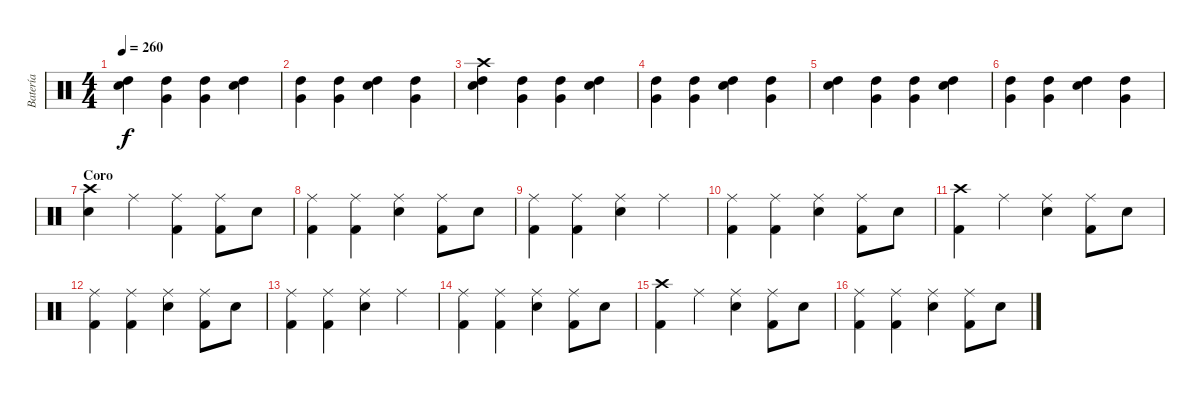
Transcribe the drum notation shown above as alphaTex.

\track ("Batería" "Batería") {instrument percussion}
\staff {score}
\articulation defaults
\ts (4 4)
\tempo 260
\clef neutral
\ks c
("Snare (hit) 2" "High Tom (hit)").4{dy f} ("Very Low Tom (hit)" "High Tom (hit)").4 ("Very Low Tom (hit)" "High Tom (hit)").4 ("Snare (hit) 2" "High Tom (hit)").4 |
("Very Low Tom (hit)" "High Tom (hit)").4 ("Very Low Tom (hit)" "High Tom (hit)").4 ("Snare (hit) 2" "High Tom (hit)").4 ("Very Low Tom (hit)" "High Tom (hit)").4 |
("Snare (hit) 2" "High Tom (hit)" "Crash high (hit)").4 ("Very Low Tom (hit)" "High Tom (hit)").4 ("Very Low Tom (hit)" "High Tom (hit)").4 ("Snare (hit) 2" "High Tom (hit)").4 |
("Very Low Tom (hit)" "High Tom (hit)").4 ("Very Low Tom (hit)" "High Tom (hit)").4 ("Snare (hit) 2" "High Tom (hit)").4 ("Very Low Tom (hit)" "High Tom (hit)").4 |
("Snare (hit) 2" "High Tom (hit)").4 ("Very Low Tom (hit)" "High Tom (hit)").4 ("Very Low Tom (hit)" "High Tom (hit)").4 ("Snare (hit) 2" "High Tom (hit)").4 |
("Very Low Tom (hit)" "High Tom (hit)").4 ("Very Low Tom (hit)" "High Tom (hit)").4 ("Snare (hit) 2" "High Tom (hit)").4 ("Very Low Tom (hit)" "High Tom (hit)").4 |
\section ("" "Coro")
("Snare (hit) 2" "Crash high (hit)").4 "Ride (middle)".4 ("Kick (hit) 2" "Ride (middle)").4 ("Kick (hit) 2" "Ride (middle)").8 "Snare (hit) 2".8 |
("Kick (hit) 2" "Ride (middle)").4 ("Kick (hit) 2" "Ride (middle)").4 ("Snare (hit) 2" "Ride (middle)").4 ("Kick (hit) 2" "Ride (middle)").8 "Snare (hit) 2".8 |
("Kick (hit) 2" "Ride (middle)").4 ("Kick (hit) 2" "Ride (middle)").4 ("Snare (hit) 2" "Ride (middle)").4 "Ride (middle)".4 |
("Kick (hit) 2" "Ride (middle)").4 ("Kick (hit) 2" "Ride (middle)").4 ("Snare (hit) 2" "Ride (middle)").4 ("Kick (hit) 2" "Ride (middle)").8 "Snare (hit) 2".8 |
("Kick (hit) 2" "Crash high (hit)").4 "Ride (middle)".4 ("Snare (hit) 2" "Ride (middle)").4 ("Kick (hit) 2" "Ride (middle)").8 "Snare (hit) 2".8 |
("Kick (hit) 2" "Ride (middle)").4 ("Kick (hit) 2" "Ride (middle)").4 ("Snare (hit) 2" "Ride (middle)").4 ("Kick (hit) 2" "Ride (middle)").8 "Snare (hit) 2".8 |
("Kick (hit) 2" "Ride (middle)").4 ("Kick (hit) 2" "Ride (middle)").4 ("Snare (hit) 2" "Ride (middle)").4 "Ride (middle)".4 |
("Kick (hit) 2" "Ride (middle)").4 ("Kick (hit) 2" "Ride (middle)").4 ("Snare (hit) 2" "Ride (middle)").4 ("Kick (hit) 2" "Ride (middle)").8 "Snare (hit) 2".8 |
("Kick (hit) 2" "Crash high (hit)").4 "Ride (middle)".4 ("Snare (hit) 2" "Ride (middle)").4 ("Kick (hit) 2" "Ride (middle)").8 "Snare (hit) 2".8 |
("Kick (hit) 2" "Ride (middle)").4 ("Kick (hit) 2" "Ride (middle)").4 ("Snare (hit) 2" "Ride (middle)").4 ("Kick (hit) 2" "Ride (middle)").8 "Snare (hit) 2".8
